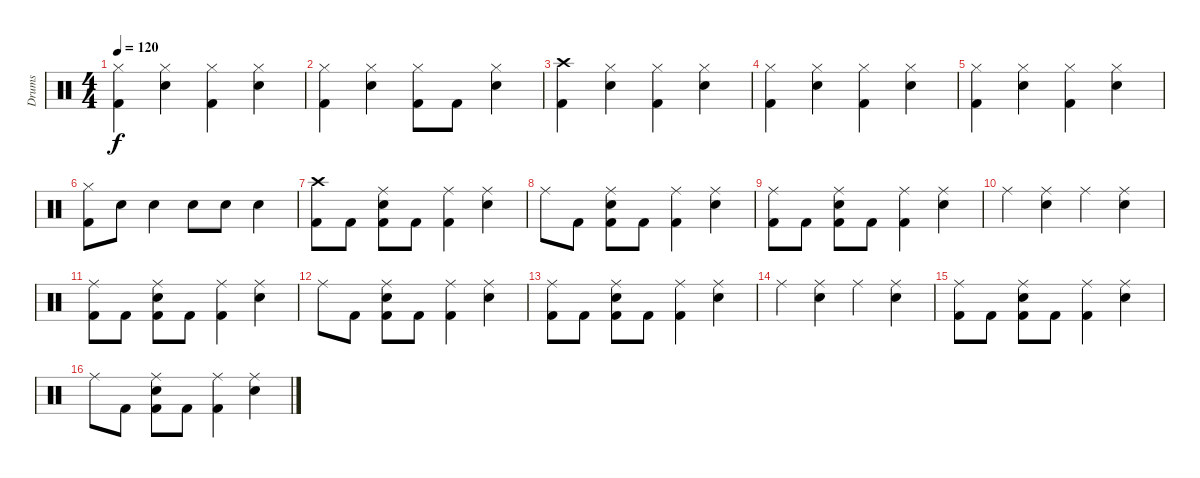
\track ("Drums" "Drums") {instrument percussion}
\staff {score}
\articulation defaults
\ts (4 4)
\tempo 120
\clef neutral
\ks c
("Hi-Hat (closed)" "Kick (hit) 2").4{dy f} ("Hi-Hat (closed)" "Electric Snare (hit)").4 ("Hi-Hat (closed)" "Kick (hit) 2").4 ("Hi-Hat (closed)" "Electric Snare (hit)").4 |
("Hi-Hat (closed)" "Kick (hit) 2").4 ("Hi-Hat (closed)" "Electric Snare (hit)").4 ("Hi-Hat (closed)" "Kick (hit) 2").8 "Kick (hit) 2".8 ("Hi-Hat (closed)" "Electric Snare (hit)").4 |
("Crash high (hit)" "Kick (hit) 2").4 ("Hi-Hat (closed)" "Electric Snare (hit)").4 ("Hi-Hat (closed)" "Kick (hit) 2").4 ("Hi-Hat (closed)" "Electric Snare (hit)").4 |
("Hi-Hat (closed)" "Kick (hit) 2").4 ("Hi-Hat (closed)" "Electric Snare (hit)").4 ("Hi-Hat (closed)" "Kick (hit) 2").4 ("Hi-Hat (closed)" "Electric Snare (hit)").4 |
("Hi-Hat (closed)" "Kick (hit) 2").4 ("Hi-Hat (closed)" "Electric Snare (hit)").4 ("Hi-Hat (closed)" "Kick (hit) 2").4 ("Hi-Hat (closed)" "Electric Snare (hit)").4 |
("Hi-Hat (closed)" "Kick (hit) 2").8 "Electric Snare (hit)".8 "Electric Snare (hit)".4 "Electric Snare (hit)".8 "Electric Snare (hit)".8 "Electric Snare (hit)".4 |
("Crash high (hit)" "Kick (hit) 2").8 "Kick (hit) 2".8 ("Ride (middle)" "Electric Snare (hit)" "Kick (hit) 2").8 "Kick (hit) 2".8 ("Ride (middle)" "Kick (hit) 2").4 ("Ride (middle)" "Electric Snare (hit)").4 |
"Ride (middle)".8 "Kick (hit) 2".8 ("Ride (middle)" "Electric Snare (hit)" "Kick (hit) 2").8 "Kick (hit) 2".8 ("Ride (middle)" "Kick (hit) 2").4 ("Ride (middle)" "Electric Snare (hit)").4 |
("Ride (middle)" "Kick (hit) 2").8 "Kick (hit) 2".8 ("Ride (middle)" "Electric Snare (hit)" "Kick (hit) 2").8 "Kick (hit) 2".8 ("Ride (middle)" "Kick (hit) 2").4 ("Ride (middle)" "Electric Snare (hit)").4 |
"Ride (middle)".4 ("Ride (middle)" "Electric Snare (hit)").4 "Ride (middle)".4 ("Ride (middle)" "Electric Snare (hit)").4 |
("Ride (middle)" "Kick (hit) 2").8 "Kick (hit) 2".8 ("Ride (middle)" "Electric Snare (hit)" "Kick (hit) 2").8 "Kick (hit) 2".8 ("Ride (middle)" "Kick (hit) 2").4 ("Ride (middle)" "Electric Snare (hit)").4 |
"Ride (middle)".8 "Kick (hit) 2".8 ("Ride (middle)" "Electric Snare (hit)" "Kick (hit) 2").8 "Kick (hit) 2".8 ("Ride (middle)" "Kick (hit) 2").4 ("Ride (middle)" "Electric Snare (hit)").4 |
("Ride (middle)" "Kick (hit) 2").8 "Kick (hit) 2".8 ("Ride (middle)" "Electric Snare (hit)" "Kick (hit) 2").8 "Kick (hit) 2".8 ("Ride (middle)" "Kick (hit) 2").4 ("Ride (middle)" "Electric Snare (hit)").4 |
"Ride (middle)".4 ("Ride (middle)" "Electric Snare (hit)").4 "Ride (middle)".4 ("Ride (middle)" "Electric Snare (hit)").4 |
("Ride (middle)" "Kick (hit) 2").8 "Kick (hit) 2".8 ("Ride (middle)" "Electric Snare (hit)" "Kick (hit) 2").8 "Kick (hit) 2".8 ("Ride (middle)" "Kick (hit) 2").4 ("Ride (middle)" "Electric Snare (hit)").4 |
"Ride (middle)".8 "Kick (hit) 2".8 ("Ride (middle)" "Electric Snare (hit)" "Kick (hit) 2").8 "Kick (hit) 2".8 ("Ride (middle)" "Kick (hit) 2").4 ("Ride (middle)" "Electric Snare (hit)").4
